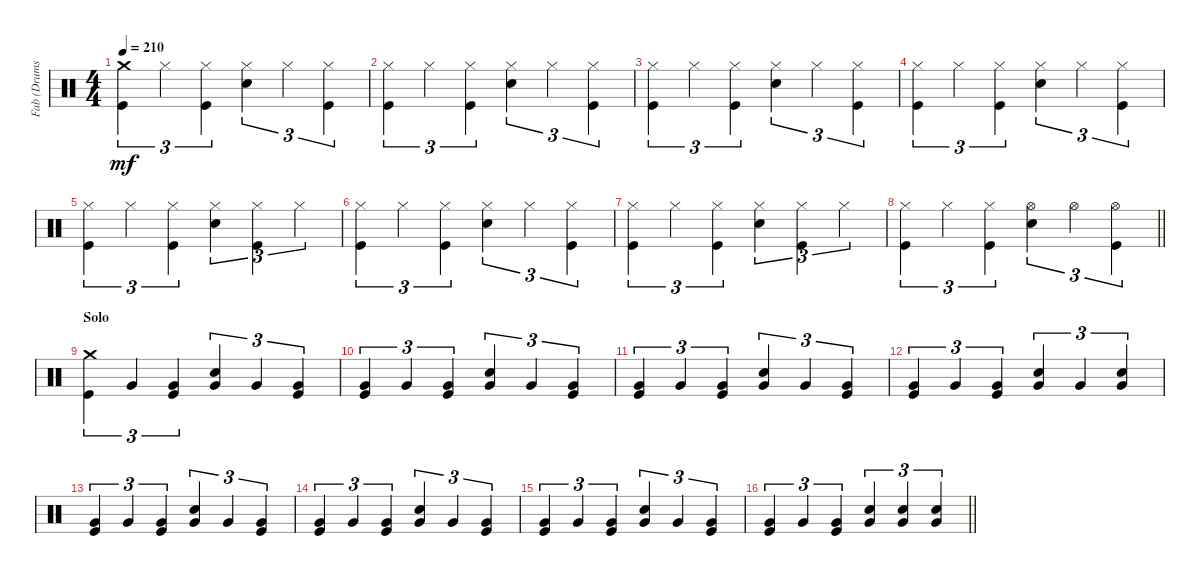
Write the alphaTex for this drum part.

\track ("Fab (Drums)" "Fab (Drums") {instrument percussion}
\staff {score}
\articulation defaults
\ts (4 4)
\tempo 210
\clef neutral
\ks c
("Kick (hit)" "Crash medium (hit)").4{tu (3 2) dy mf} "Hi-Hat (closed)".4{tu (3 2)} ("Hi-Hat (closed)" "Kick (hit)").4{tu (3 2)} ("Hi-Hat (closed)" "Snare (hit) 2").4{tu (3 2)} "Hi-Hat (closed)".4{tu (3 2)} ("Hi-Hat (closed)" "Kick (hit)").4{tu (3 2)} |
("Kick (hit)" "Hi-Hat (closed)").4{tu (3 2)} "Hi-Hat (closed)".4{tu (3 2)} ("Hi-Hat (closed)" "Kick (hit)").4{tu (3 2)} ("Hi-Hat (closed)" "Snare (hit) 2").4{tu (3 2)} "Hi-Hat (closed)".4{tu (3 2)} ("Hi-Hat (closed)" "Kick (hit)").4{tu (3 2)} |
("Kick (hit)" "Hi-Hat (closed)").4{tu (3 2)} "Hi-Hat (closed)".4{tu (3 2)} ("Hi-Hat (closed)" "Kick (hit)").4{tu (3 2)} ("Hi-Hat (closed)" "Snare (hit) 2").4{tu (3 2)} "Hi-Hat (closed)".4{tu (3 2)} ("Hi-Hat (closed)" "Kick (hit)").4{tu (3 2)} |
("Kick (hit)" "Hi-Hat (closed)").4{tu (3 2)} "Hi-Hat (closed)".4{tu (3 2)} ("Hi-Hat (closed)" "Kick (hit)").4{tu (3 2)} ("Hi-Hat (closed)" "Snare (hit) 2").4{tu (3 2)} "Hi-Hat (closed)".4{tu (3 2)} ("Hi-Hat (closed)" "Kick (hit)").4{tu (3 2)} |
("Kick (hit)" "Hi-Hat (closed)").4{tu (3 2)} "Hi-Hat (closed)".4{tu (3 2)} ("Hi-Hat (closed)" "Kick (hit)").4{tu (3 2)} ("Hi-Hat (closed)" "Snare (hit) 2").4{tu (3 2)} ("Hi-Hat (closed)" "Kick (hit)").4{tu (3 2)} "Hi-Hat (closed)".4{tu (3 2)} |
("Kick (hit)" "Hi-Hat (closed)").4{tu (3 2)} "Hi-Hat (closed)".4{tu (3 2)} ("Hi-Hat (closed)" "Kick (hit)").4{tu (3 2)} ("Hi-Hat (closed)" "Snare (hit) 2").4{tu (3 2)} "Hi-Hat (closed)".4{tu (3 2)} ("Hi-Hat (closed)" "Kick (hit)").4{tu (3 2)} |
("Kick (hit)" "Hi-Hat (closed)").4{tu (3 2)} "Hi-Hat (closed)".4{tu (3 2)} ("Hi-Hat (closed)" "Kick (hit)").4{tu (3 2)} ("Hi-Hat (closed)" "Snare (hit) 2").4{tu (3 2)} ("Hi-Hat (closed)" "Kick (hit)").4{tu (3 2)} "Hi-Hat (closed)".4{tu (3 2)} |
\barLineRight lightlight
("Kick (hit)" "Hi-Hat (closed)").4{tu (3 2)} "Hi-Hat (closed)".4{tu (3 2)} ("Hi-Hat (closed)" "Kick (hit)").4{tu (3 2)} ("Hi-Hat (open)" "Snare (hit) 2").4{tu (3 2)} "Hi-Hat (open)".4{tu (3 2)} ("Hi-Hat (open)" "Kick (hit)").4{tu (3 2)} |
\section ("" "Solo")
("Kick (hit)" "Crash medium (hit)").4{tu (3 2)} "Very Low Tom (hit)".4{tu (3 2)} ("Very Low Tom (hit)" "Kick (hit)").4{tu (3 2)} ("Very Low Tom (hit)" "Snare (hit) 2").4{tu (3 2)} "Very Low Tom (hit)".4{tu (3 2)} ("Very Low Tom (hit)" "Kick (hit)").4{tu (3 2)} |
("Kick (hit)" "Very Low Tom (hit)").4{tu (3 2)} "Very Low Tom (hit)".4{tu (3 2)} ("Very Low Tom (hit)" "Kick (hit)").4{tu (3 2)} ("Very Low Tom (hit)" "Snare (hit) 2").4{tu (3 2)} "Very Low Tom (hit)".4{tu (3 2)} ("Very Low Tom (hit)" "Kick (hit)").4{tu (3 2)} |
("Kick (hit)" "Very Low Tom (hit)").4{tu (3 2)} "Very Low Tom (hit)".4{tu (3 2)} ("Very Low Tom (hit)" "Kick (hit)").4{tu (3 2)} ("Very Low Tom (hit)" "Snare (hit) 2").4{tu (3 2)} "Very Low Tom (hit)".4{tu (3 2)} ("Very Low Tom (hit)" "Kick (hit)").4{tu (3 2)} |
("Kick (hit)" "Very Low Tom (hit)").4{tu (3 2)} "Very Low Tom (hit)".4{tu (3 2)} ("Very Low Tom (hit)" "Kick (hit)").4{tu (3 2)} ("Very Low Tom (hit)" "Snare (hit) 2").4{tu (3 2)} "Very Low Tom (hit)".4{tu (3 2)} ("Very Low Tom (hit)" "Snare (hit) 2").4{tu (3 2)} |
("Kick (hit)" "Very Low Tom (hit)").4{tu (3 2)} "Very Low Tom (hit)".4{tu (3 2)} ("Very Low Tom (hit)" "Kick (hit)").4{tu (3 2)} ("Very Low Tom (hit)" "Snare (hit) 2").4{tu (3 2)} "Very Low Tom (hit)".4{tu (3 2)} ("Very Low Tom (hit)" "Kick (hit)").4{tu (3 2)} |
("Kick (hit)" "Very Low Tom (hit)").4{tu (3 2)} "Very Low Tom (hit)".4{tu (3 2)} ("Very Low Tom (hit)" "Kick (hit)").4{tu (3 2)} ("Very Low Tom (hit)" "Snare (hit) 2").4{tu (3 2)} "Very Low Tom (hit)".4{tu (3 2)} ("Very Low Tom (hit)" "Kick (hit)").4{tu (3 2)} |
("Kick (hit)" "Very Low Tom (hit)").4{tu (3 2)} "Very Low Tom (hit)".4{tu (3 2)} ("Very Low Tom (hit)" "Kick (hit)").4{tu (3 2)} ("Very Low Tom (hit)" "Snare (hit) 2").4{tu (3 2)} "Very Low Tom (hit)".4{tu (3 2)} ("Very Low Tom (hit)" "Kick (hit)").4{tu (3 2)} |
\barLineRight lightlight
("Kick (hit)" "Very Low Tom (hit)").4{tu (3 2)} "Very Low Tom (hit)".4{tu (3 2)} ("Very Low Tom (hit)" "Kick (hit)").4{tu (3 2)} ("Very Low Tom (hit)" "Snare (hit) 2").4{tu (3 2)} ("Very Low Tom (hit)" "Snare (hit) 2").4{tu (3 2)} ("Very Low Tom (hit)" "Snare (hit) 2").4{tu (3 2)}
